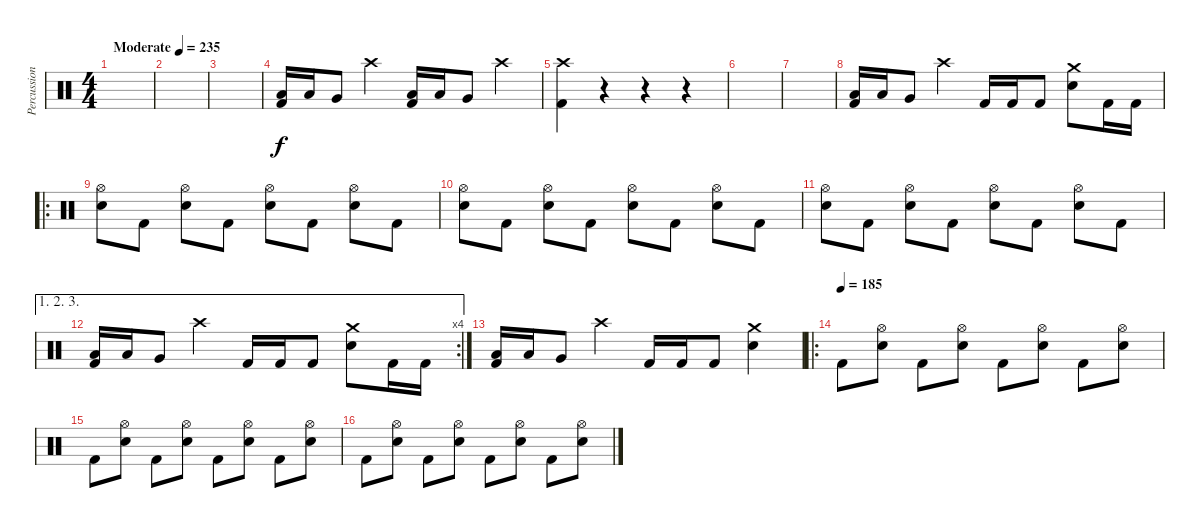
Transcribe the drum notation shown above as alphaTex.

\track ("Percussion" "Percussion") {instrument percussion}
\staff {score}
\articulation defaults
\ts (4 4)
\tempo (235 "Moderate")
\clef neutral
\ks c
|
|
|
("Low Tom (hit)" "Kick (hit) 2").16 "Low Tom (hit)".16 "Very Low Tom (hit)".8 "Crash high (hit)".4 ("Low Tom (hit)" "Kick (hit) 2").16 "Low Tom (hit)".16 "Very Low Tom (hit)".8 "Crash high (hit)".4 |
("Crash high (hit)" "Kick (hit) 2").4 r.4{volume 0} r.4 r.4 |
|
|
("Low Tom (hit)" "Kick (hit) 2").16{volume 13} "Low Tom (hit)".16 "Very Low Tom (hit)".8 "Crash high (hit)".4 "Kick (hit) 2".16 "Kick (hit) 2".16 "Kick (hit) 2".8 ("Crash medium (hit)" "Electric Snare (hit)").8 "Kick (hit) 2".16 "Kick (hit) 2".16 |
\ro
("Hi-Hat (open)" "Electric Snare (hit)").8 "Kick (hit) 2".8 ("Hi-Hat (open)" "Electric Snare (hit)").8 "Kick (hit) 2".8 ("Hi-Hat (open)" "Electric Snare (hit)").8 "Kick (hit) 2".8 ("Hi-Hat (open)" "Electric Snare (hit)").8 "Kick (hit) 2".8 |
("Hi-Hat (open)" "Electric Snare (hit)").8 "Kick (hit) 2".8 ("Hi-Hat (open)" "Electric Snare (hit)").8 "Kick (hit) 2".8 ("Hi-Hat (open)" "Electric Snare (hit)").8 "Kick (hit) 2".8 ("Hi-Hat (open)" "Electric Snare (hit)").8 "Kick (hit) 2".8 |
("Hi-Hat (open)" "Electric Snare (hit)").8 "Kick (hit) 2".8 ("Hi-Hat (open)" "Electric Snare (hit)").8 "Kick (hit) 2".8 ("Hi-Hat (open)" "Electric Snare (hit)").8 "Kick (hit) 2".8 ("Hi-Hat (open)" "Electric Snare (hit)").8 "Kick (hit) 2".8 |
\ae (1 2 3)
\rc 4
("Low Tom (hit)" "Kick (hit) 2").16 "Low Tom (hit)".16 "Very Low Tom (hit)".8 "Crash high (hit)".4 "Kick (hit) 2".16 "Kick (hit) 2".16 "Kick (hit) 2".8 ("Crash medium (hit)" "Electric Snare (hit)").8 "Kick (hit) 2".16 "Kick (hit) 2".16 |
("Low Tom (hit)" "Kick (hit) 2").16 "Low Tom (hit)".16 "Very Low Tom (hit)".8 "Crash high (hit)".4 "Kick (hit) 2".16 "Kick (hit) 2".16 "Kick (hit) 2".8 ("Crash medium (hit)" "Electric Snare (hit)").4 |
\ro
\tempo (185)
"Kick (hit) 2".8 ("Hi-Hat (open)" "Electric Snare (hit)").8 "Kick (hit) 2".8 ("Hi-Hat (open)" "Electric Snare (hit)").8 "Kick (hit) 2".8 ("Hi-Hat (open)" "Electric Snare (hit)").8 "Kick (hit) 2".8 ("Hi-Hat (open)" "Electric Snare (hit)").8 |
"Kick (hit) 2".8 ("Hi-Hat (open)" "Electric Snare (hit)").8 "Kick (hit) 2".8 ("Hi-Hat (open)" "Electric Snare (hit)").8 "Kick (hit) 2".8 ("Hi-Hat (open)" "Electric Snare (hit)").8 "Kick (hit) 2".8 ("Hi-Hat (open)" "Electric Snare (hit)").8 |
"Kick (hit) 2".8 ("Hi-Hat (open)" "Electric Snare (hit)").8 "Kick (hit) 2".8 ("Hi-Hat (open)" "Electric Snare (hit)").8 "Kick (hit) 2".8 ("Hi-Hat (open)" "Electric Snare (hit)").8 "Kick (hit) 2".8 ("Hi-Hat (open)" "Electric Snare (hit)").8
